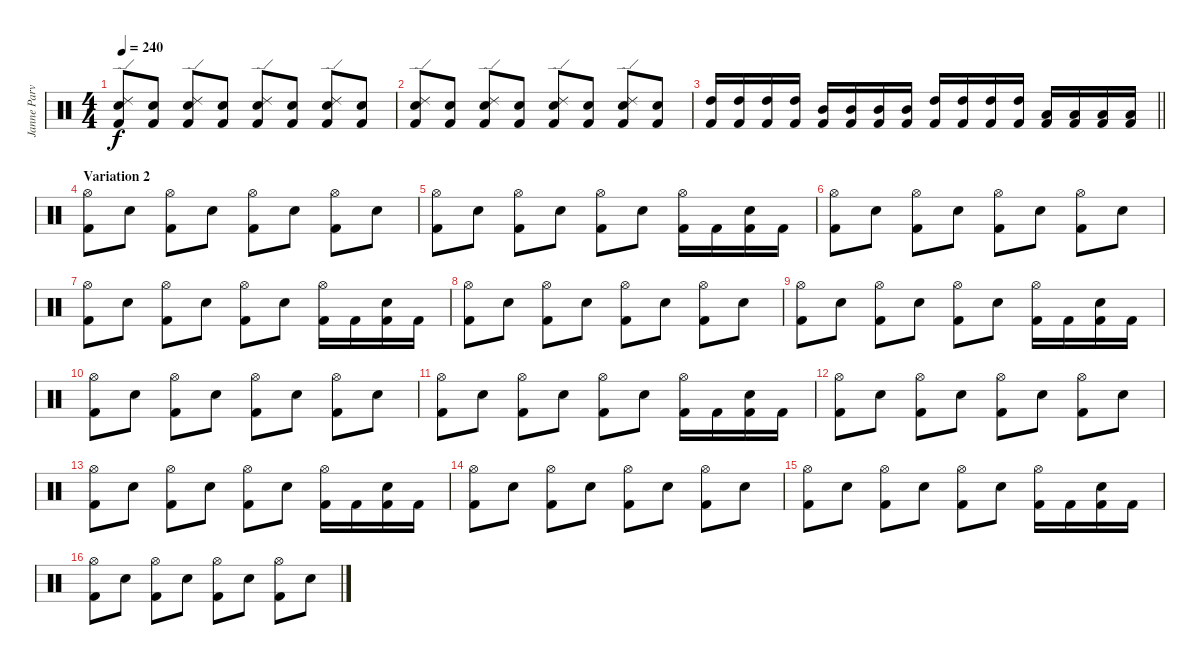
\track ("Janne Parviainen" "Janne Parv") {instrument percussion}
\staff {score}
\articulation defaults
\ts (4 4)
\tempo 240
\clef neutral
\ks c
("Electric Snare (hit)" "Kick (hit) 2" "Ride (edge) 2").8{dy f} ("Kick (hit) 2" "Electric Snare (hit)").8 ("Electric Snare (hit)" "Kick (hit) 2" "Ride (edge) 2").8 ("Kick (hit) 2" "Electric Snare (hit)").8 ("Electric Snare (hit)" "Kick (hit) 2" "Ride (edge) 2").8 ("Kick (hit) 2" "Electric Snare (hit)").8 ("Electric Snare (hit)" "Kick (hit) 2" "Ride (edge) 2").8 ("Kick (hit) 2" "Electric Snare (hit)").8 |
("Electric Snare (hit)" "Kick (hit) 2" "Ride (edge) 2").8 ("Kick (hit) 2" "Electric Snare (hit)").8 ("Electric Snare (hit)" "Kick (hit) 2" "Ride (edge) 2").8 ("Kick (hit) 2" "Electric Snare (hit)").8 ("Electric Snare (hit)" "Kick (hit) 2" "Ride (edge) 2").8 ("Kick (hit) 2" "Electric Snare (hit)").8 ("Electric Snare (hit)" "Kick (hit) 2" "Ride (edge) 2").8 ("Kick (hit) 2" "Electric Snare (hit)").8 |
\barLineRight lightlight
("High Tom (hit)" "Kick (hit) 2").16 ("High Tom (hit)" "Kick (hit) 2").16 ("High Tom (hit)" "Kick (hit) 2").16 ("High Tom (hit)" "Kick (hit) 2").16 ("Mid Tom (hit)" "Kick (hit) 2").16 ("Mid Tom (hit)" "Kick (hit) 2").16 ("Mid Tom (hit)" "Kick (hit) 2").16 ("Mid Tom (hit)" "Kick (hit) 2").16 ("High Tom (hit)" "Kick (hit) 2").16 ("High Tom (hit)" "Kick (hit) 2").16 ("High Tom (hit)" "Kick (hit) 2").16 ("High Tom (hit)" "Kick (hit) 2").16 ("Low Tom (hit)" "Kick (hit) 2").16 ("Low Tom (hit)" "Kick (hit) 2").16 ("Low Tom (hit)" "Kick (hit) 2").16 ("Low Tom (hit)" "Kick (hit) 2").16 |
\section ("" "Variation 2")
("Kick (hit) 2" "Hi-Hat (open)").8 "Electric Snare (hit)".8 ("Kick (hit) 2" "Hi-Hat (open)").8 "Electric Snare (hit)".8 ("Kick (hit) 2" "Hi-Hat (open)").8 "Electric Snare (hit)".8 ("Kick (hit) 2" "Hi-Hat (open)").8 "Electric Snare (hit)".8 |
("Kick (hit) 2" "Hi-Hat (open)").8 "Electric Snare (hit)".8 ("Kick (hit) 2" "Hi-Hat (open)").8 "Electric Snare (hit)".8 ("Kick (hit) 2" "Hi-Hat (open)").8 "Electric Snare (hit)".8 ("Kick (hit) 2" "Hi-Hat (open)").16 "Kick (hit) 2".16 ("Electric Snare (hit)" "Kick (hit) 2").16 "Kick (hit) 2".16 |
("Kick (hit) 2" "Hi-Hat (open)").8 "Electric Snare (hit)".8 ("Kick (hit) 2" "Hi-Hat (open)").8 "Electric Snare (hit)".8 ("Kick (hit) 2" "Hi-Hat (open)").8 "Electric Snare (hit)".8 ("Kick (hit) 2" "Hi-Hat (open)").8 "Electric Snare (hit)".8 |
("Kick (hit) 2" "Hi-Hat (open)").8 "Electric Snare (hit)".8 ("Kick (hit) 2" "Hi-Hat (open)").8 "Electric Snare (hit)".8 ("Kick (hit) 2" "Hi-Hat (open)").8 "Electric Snare (hit)".8 ("Kick (hit) 2" "Hi-Hat (open)").16 "Kick (hit) 2".16 ("Electric Snare (hit)" "Kick (hit) 2").16 "Kick (hit) 2".16 |
("Kick (hit) 2" "Hi-Hat (open)").8 "Electric Snare (hit)".8 ("Kick (hit) 2" "Hi-Hat (open)").8 "Electric Snare (hit)".8 ("Kick (hit) 2" "Hi-Hat (open)").8 "Electric Snare (hit)".8 ("Kick (hit) 2" "Hi-Hat (open)").8 "Electric Snare (hit)".8 |
("Kick (hit) 2" "Hi-Hat (open)").8 "Electric Snare (hit)".8 ("Kick (hit) 2" "Hi-Hat (open)").8 "Electric Snare (hit)".8 ("Kick (hit) 2" "Hi-Hat (open)").8 "Electric Snare (hit)".8 ("Kick (hit) 2" "Hi-Hat (open)").16 "Kick (hit) 2".16 ("Electric Snare (hit)" "Kick (hit) 2").16 "Kick (hit) 2".16 |
("Kick (hit) 2" "Hi-Hat (open)").8 "Electric Snare (hit)".8 ("Kick (hit) 2" "Hi-Hat (open)").8 "Electric Snare (hit)".8 ("Kick (hit) 2" "Hi-Hat (open)").8 "Electric Snare (hit)".8 ("Kick (hit) 2" "Hi-Hat (open)").8 "Electric Snare (hit)".8 |
("Kick (hit) 2" "Hi-Hat (open)").8 "Electric Snare (hit)".8 ("Kick (hit) 2" "Hi-Hat (open)").8 "Electric Snare (hit)".8 ("Kick (hit) 2" "Hi-Hat (open)").8 "Electric Snare (hit)".8 ("Kick (hit) 2" "Hi-Hat (open)").16 "Kick (hit) 2".16 ("Electric Snare (hit)" "Kick (hit) 2").16 "Kick (hit) 2".16 |
("Kick (hit) 2" "Hi-Hat (open)").8 "Electric Snare (hit)".8 ("Kick (hit) 2" "Hi-Hat (open)").8 "Electric Snare (hit)".8 ("Kick (hit) 2" "Hi-Hat (open)").8 "Electric Snare (hit)".8 ("Kick (hit) 2" "Hi-Hat (open)").8 "Electric Snare (hit)".8 |
("Kick (hit) 2" "Hi-Hat (open)").8 "Electric Snare (hit)".8 ("Kick (hit) 2" "Hi-Hat (open)").8 "Electric Snare (hit)".8 ("Kick (hit) 2" "Hi-Hat (open)").8 "Electric Snare (hit)".8 ("Kick (hit) 2" "Hi-Hat (open)").16 "Kick (hit) 2".16 ("Electric Snare (hit)" "Kick (hit) 2").16 "Kick (hit) 2".16 |
("Kick (hit) 2" "Hi-Hat (open)").8 "Electric Snare (hit)".8 ("Kick (hit) 2" "Hi-Hat (open)").8 "Electric Snare (hit)".8 ("Kick (hit) 2" "Hi-Hat (open)").8 "Electric Snare (hit)".8 ("Kick (hit) 2" "Hi-Hat (open)").8 "Electric Snare (hit)".8 |
("Kick (hit) 2" "Hi-Hat (open)").8 "Electric Snare (hit)".8 ("Kick (hit) 2" "Hi-Hat (open)").8 "Electric Snare (hit)".8 ("Kick (hit) 2" "Hi-Hat (open)").8 "Electric Snare (hit)".8 ("Kick (hit) 2" "Hi-Hat (open)").16 "Kick (hit) 2".16 ("Electric Snare (hit)" "Kick (hit) 2").16 "Kick (hit) 2".16 |
("Kick (hit) 2" "Hi-Hat (open)").8 "Electric Snare (hit)".8 ("Kick (hit) 2" "Hi-Hat (open)").8 "Electric Snare (hit)".8 ("Kick (hit) 2" "Hi-Hat (open)").8 "Electric Snare (hit)".8 ("Kick (hit) 2" "Hi-Hat (open)").8 "Electric Snare (hit)".8
